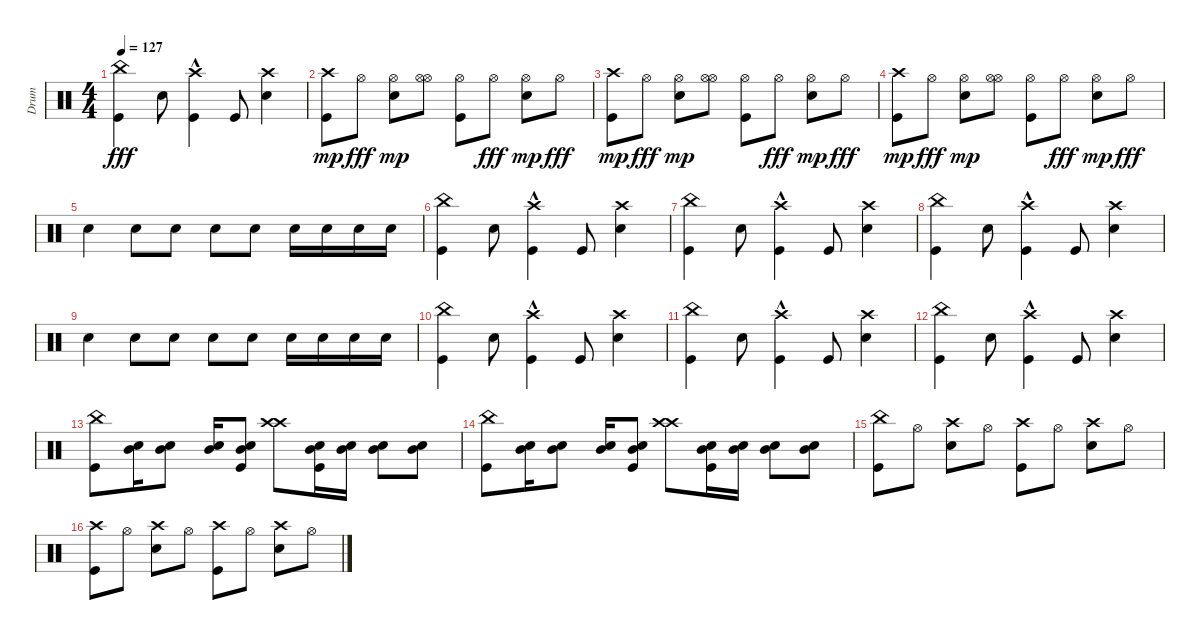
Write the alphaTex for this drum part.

\track ("Drum" "Drum") {instrument percussion}
\staff {score}
\articulation defaults
\ts (4 4)
\tempo 127
\clef neutral
\ks c
("Kick (hit)" "China (hit)").4{dy fff} "Electric Snare (hit)".8 ("Crash high (hit)"{hac} "Kick (hit)").4 "Kick (hit)".8 ("Crash high (hit)" "Electric Snare (hit)").4 |
("Crash high (hit)" "Kick (hit)").8{dy mp} "Hi-Hat (open)".8{dy fff} ("Electric Snare (hit)" "Hi-Hat (open)").8{dy mp} ("Hi-Hat (open)" "Hi-Hat (open)").8 ("Kick (hit)" "Hi-Hat (open)").8 "Hi-Hat (open)".8{dy fff} ("Electric Snare (hit)" "Hi-Hat (open)").8{dy mp} "Hi-Hat (open)".8{dy fff} |
("Crash high (hit)" "Kick (hit)").8{dy mp} "Hi-Hat (open)".8{dy fff} ("Electric Snare (hit)" "Hi-Hat (open)").8{dy mp} ("Hi-Hat (open)" "Hi-Hat (open)").8 ("Kick (hit)" "Hi-Hat (open)").8 "Hi-Hat (open)".8{dy fff} ("Electric Snare (hit)" "Hi-Hat (open)").8{dy mp} "Hi-Hat (open)".8{dy fff} |
("Crash high (hit)" "Kick (hit)").8{dy mp} "Hi-Hat (open)".8{dy fff} ("Electric Snare (hit)" "Hi-Hat (open)").8{dy mp} ("Hi-Hat (open)" "Hi-Hat (open)").8 ("Kick (hit)" "Hi-Hat (open)").8 "Hi-Hat (open)".8{dy fff} ("Electric Snare (hit)" "Hi-Hat (open)").8{dy mp} "Hi-Hat (open)".8{dy fff} |
"Electric Snare (hit)".4 "Electric Snare (hit)".8 "Electric Snare (hit)".8 "Electric Snare (hit)".8 "Electric Snare (hit)".8 "Electric Snare (hit)".16 "Electric Snare (hit)".16 "Electric Snare (hit)".16 "Electric Snare (hit)".16 |
("Kick (hit)" "China (hit)").4 "Electric Snare (hit)".8 ("Crash high (hit)"{hac} "Kick (hit)").4 "Kick (hit)".8 ("Crash high (hit)" "Electric Snare (hit)").4 |
("Kick (hit)" "China (hit)").4 "Electric Snare (hit)".8 ("Crash high (hit)"{hac} "Kick (hit)").4 "Kick (hit)".8 ("Crash high (hit)" "Electric Snare (hit)").4 |
("Kick (hit)" "China (hit)").4 "Electric Snare (hit)".8 ("Crash high (hit)"{hac} "Kick (hit)").4 "Kick (hit)".8 ("Crash high (hit)" "Electric Snare (hit)").4 |
"Electric Snare (hit)".4 "Electric Snare (hit)".8 "Electric Snare (hit)".8 "Electric Snare (hit)".8 "Electric Snare (hit)".8 "Electric Snare (hit)".16 "Electric Snare (hit)".16 "Electric Snare (hit)".16 "Electric Snare (hit)".16 |
("Kick (hit)" "China (hit)").4 "Electric Snare (hit)".8 ("Crash high (hit)"{hac} "Kick (hit)").4 "Kick (hit)".8 ("Crash high (hit)" "Electric Snare (hit)").4 |
("Kick (hit)" "China (hit)").4 "Electric Snare (hit)".8 ("Crash high (hit)"{hac} "Kick (hit)").4 "Kick (hit)".8 ("Crash high (hit)" "Electric Snare (hit)").4 |
("Kick (hit)" "China (hit)").4 "Electric Snare (hit)".8 ("Crash high (hit)"{hac} "Kick (hit)").4 "Kick (hit)".8 ("Crash high (hit)" "Electric Snare (hit)").4 |
("Kick (hit)" "China (hit)").8 ("Electric Snare (hit)" "Mid Tom (hit)").16 ("Electric Snare (hit)" "Mid Tom (hit)").8 ("Mid Tom (hit)" "Electric Snare (hit)").16 ("Kick (hit)" "Electric Snare (hit)" "Mid Tom (hit)").8 ("Crash high (hit)" "Crash high (hit)").8 ("Kick (hit)" "Mid Tom (hit)" "Electric Snare (hit)").16 ("Mid Tom (hit)" "Electric Snare (hit)").16 ("Mid Tom (hit)" "Electric Snare (hit)").8 ("Electric Snare (hit)" "Mid Tom (hit)").8 |
("Kick (hit)" "China (hit)").8 ("Electric Snare (hit)" "Mid Tom (hit)").16 ("Electric Snare (hit)" "Mid Tom (hit)").8 ("Mid Tom (hit)" "Electric Snare (hit)").16 ("Kick (hit)" "Electric Snare (hit)" "Mid Tom (hit)").8 ("Crash high (hit)" "Crash high (hit)").8 ("Kick (hit)" "Mid Tom (hit)" "Electric Snare (hit)").16 ("Mid Tom (hit)" "Electric Snare (hit)").16 ("Mid Tom (hit)" "Electric Snare (hit)").8 ("Electric Snare (hit)" "Mid Tom (hit)").8 |
("Kick (hit)" "China (hit)").8 "Hi-Hat (open)".8 ("Crash high (hit)" "Electric Snare (hit)").8 "Hi-Hat (open)".8 ("Kick (hit)" "Crash high (hit)").8 "Hi-Hat (open)".8 ("Crash high (hit)" "Electric Snare (hit)").8 "Hi-Hat (open)".8 |
("Kick (hit)" "Crash high (hit)").8 "Hi-Hat (open)".8 ("Crash high (hit)" "Electric Snare (hit)").8 "Hi-Hat (open)".8 ("Kick (hit)" "Crash high (hit)").8 "Hi-Hat (open)".8 ("Crash high (hit)" "Electric Snare (hit)").8 "Hi-Hat (open)".8
